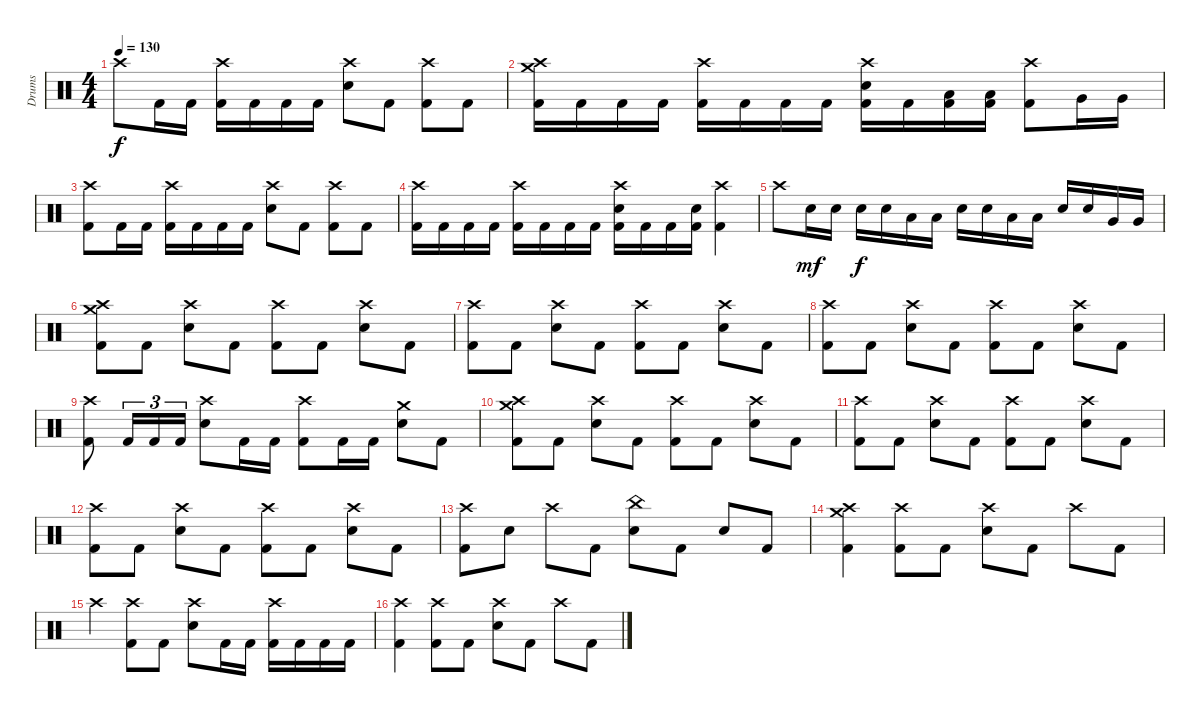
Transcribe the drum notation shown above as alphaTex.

\track ("Drums" "Drums") {instrument percussion}
\staff {score}
\articulation defaults
\ts (4 4)
\tempo 130
\clef neutral
\ks c "Crash high (hit)".8{dy f} "Kick (hit) 2".16 "Kick (hit) 2".16
("Crash high (hit)" "Kick (hit) 2").16 "Kick (hit) 2".16 "Kick (hit) 2".16 "Kick (hit) 2".16 ("Crash high (hit)" "Electric Snare (hit)").8 "Kick (hit) 2".8 ("Crash high (hit)" "Kick (hit) 2").8 "Kick (hit) 2".8 |
("Crash high (hit)" "Crash medium (hit)" "Kick (hit) 2").16 "Kick (hit) 2".16 "Kick (hit) 2".16 "Kick (hit) 2".16 ("Crash high (hit)" "Kick (hit) 2").16 "Kick (hit) 2".16 "Kick (hit) 2".16 "Kick (hit) 2".16 ("Crash high (hit)" "Electric Snare (hit)" "Kick (hit) 2").16 "Kick (hit) 2".16 ("Low Tom (hit)" "Kick (hit) 2").16 ("Low Tom (hit)" "Kick (hit) 2").16 ("Crash high (hit)" "Kick (hit) 2").8 "Very Low Tom (hit)".16 "Very Low Tom (hit)".16 |
("Crash high (hit)" "Kick (hit) 2").8 "Kick (hit) 2".16 "Kick (hit) 2".16 ("Crash high (hit)" "Kick (hit) 2").16 "Kick (hit) 2".16 "Kick (hit) 2".16 "Kick (hit) 2".16 ("Crash high (hit)" "Electric Snare (hit)").8 "Kick (hit) 2".8 ("Crash high (hit)" "Kick (hit) 2").8 "Kick (hit) 2".8 |
("Crash high (hit)" "Kick (hit) 2").16 "Kick (hit) 2".16 "Kick (hit) 2".16 "Kick (hit) 2".16 ("Crash high (hit)" "Kick (hit) 2").16 "Kick (hit) 2".16 "Kick (hit) 2".16 "Kick (hit) 2".16 ("Crash high (hit)" "Electric Snare (hit)" "Kick (hit) 2").16 "Kick (hit) 2".16 "Kick (hit) 2".16 ("Electric Snare (hit)" "Kick (hit) 2").16 ("Crash high (hit)" "Kick (hit) 2").4 |
"Crash high (hit)".8 "Electric Snare (hit)".16{dy mf} "Electric Snare (hit)".16 "Electric Snare (hit)".16{dy f} "Electric Snare (hit)".16 "Low Tom (hit)".16 "Low Tom (hit)".16 "Electric Snare (hit)".16 "Electric Snare (hit)".16 "Low Tom (hit)".16 "Low Tom (hit)".16 "Electric Snare (hit)".16 "Electric Snare (hit)".16 "Very Low Tom (hit)".16 "Very Low Tom (hit)".16 |
("Crash high (hit)" "Crash medium (hit)" "Kick (hit) 2").8 "Kick (hit) 2".8 ("Crash high (hit)" "Electric Snare (hit)").8 "Kick (hit) 2".8 ("Crash high (hit)" "Kick (hit) 2").8 "Kick (hit) 2".8 ("Crash high (hit)" "Electric Snare (hit)").8 "Kick (hit) 2".8 |
("Crash high (hit)" "Kick (hit) 2").8 "Kick (hit) 2".8 ("Crash high (hit)" "Electric Snare (hit)").8 "Kick (hit) 2".8 ("Crash high (hit)" "Kick (hit) 2").8 "Kick (hit) 2".8 ("Crash high (hit)" "Electric Snare (hit)").8 "Kick (hit) 2".8 |
("Crash high (hit)" "Kick (hit) 2").8 "Kick (hit) 2".8 ("Crash high (hit)" "Electric Snare (hit)").8 "Kick (hit) 2".8 ("Crash high (hit)" "Kick (hit) 2").8 "Kick (hit) 2".8 ("Crash high (hit)" "Electric Snare (hit)").8 "Kick (hit) 2".8 |
("Crash high (hit)" "Kick (hit) 2").8 "Kick (hit) 2".16{tu (3 2)} "Kick (hit) 2".16{tu (3 2)} "Kick (hit) 2".16{tu (3 2)} ("Crash high (hit)" "Electric Snare (hit)").8 "Kick (hit) 2".16 "Kick (hit) 2".16 ("Crash high (hit)" "Kick (hit) 2").8 "Kick (hit) 2".16 "Kick (hit) 2".16 ("Crash medium (hit)" "Electric Snare (hit)").8 "Kick (hit) 2".8 |
("Crash high (hit)" "Crash medium (hit)" "Kick (hit) 2").8 "Kick (hit) 2".8 ("Crash high (hit)" "Electric Snare (hit)").8 "Kick (hit) 2".8 ("Crash high (hit)" "Kick (hit) 2").8 "Kick (hit) 2".8 ("Crash high (hit)" "Electric Snare (hit)").8 "Kick (hit) 2".8 |
("Crash high (hit)" "Kick (hit) 2").8 "Kick (hit) 2".8 ("Crash high (hit)" "Electric Snare (hit)").8 "Kick (hit) 2".8 ("Crash high (hit)" "Kick (hit) 2").8 "Kick (hit) 2".8 ("Crash high (hit)" "Electric Snare (hit)").8 "Kick (hit) 2".8 |
("Crash high (hit)" "Kick (hit) 2").8 "Kick (hit) 2".8 ("Crash high (hit)" "Electric Snare (hit)").8 "Kick (hit) 2".8 ("Crash high (hit)" "Kick (hit) 2").8 "Kick (hit) 2".8 ("Crash high (hit)" "Electric Snare (hit)").8 "Kick (hit) 2".8 |
("Crash high (hit)" "Kick (hit) 2").8 "Electric Snare (hit)".8 "Crash high (hit)".8 "Kick (hit) 2".8 ("China (hit)" "Electric Snare (hit)").8 "Kick (hit) 2".8 "Electric Snare (hit)".8 "Kick (hit) 2".8 |
("Crash high (hit)" "Crash medium (hit)" "Kick (hit) 2").4 ("Crash high (hit)" "Kick (hit) 2").8 "Kick (hit) 2".8 ("Crash high (hit)" "Electric Snare (hit)").8 "Kick (hit) 2".8 "Crash high (hit)".8 "Kick (hit) 2".8 |
"Crash high (hit)".4 ("Crash high (hit)" "Kick (hit) 2").8 "Kick (hit) 2".8 ("Crash high (hit)" "Electric Snare (hit)").8 "Kick (hit) 2".16 "Kick (hit) 2".16 ("Crash high (hit)" "Kick (hit) 2").16 "Kick (hit) 2".16 "Kick (hit) 2".16 "Kick (hit) 2".16 |
("Crash high (hit)" "Kick (hit) 2").4 ("Crash high (hit)" "Kick (hit) 2").8 "Kick (hit) 2".8 ("Crash high (hit)" "Electric Snare (hit)").8 "Kick (hit) 2".8 "Crash high (hit)".8 "Kick (hit) 2".8
